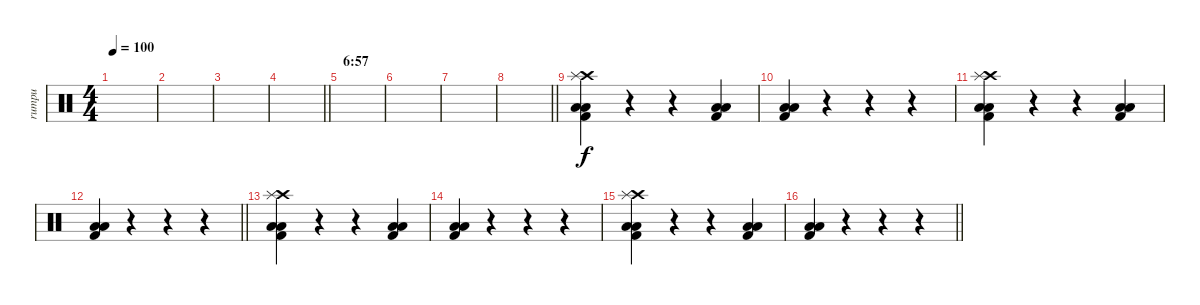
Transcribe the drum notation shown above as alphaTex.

\track ("rumpu" "rumpu") {instrument percussion}
\staff {score}
\articulation defaults
\ts (4 4)
\tempo 100
\clef neutral
\ks c
|
|
|
\barLineRight lightlight
|
\section ("" "6:57")
|
|
|
\barLineRight lightlight
|
("Kick (hit) 2" "Low Tom (hit)" "Low Floor Tom (hit)" "Crash high (hit)" "Splash (hit)").4 r.4 r.4 ("Kick (hit) 2" "Low Tom (hit)" "Low Floor Tom (hit)").4 |
("Kick (hit) 2" "Low Tom (hit)" "Low Floor Tom (hit)").4 r.4 r.4 r.4 |
("Kick (hit) 2" "Low Tom (hit)" "Low Floor Tom (hit)" "Crash high (hit)" "Splash (hit)").4 r.4 r.4 ("Kick (hit) 2" "Low Tom (hit)" "Low Floor Tom (hit)").4 |
\barLineRight lightlight
("Kick (hit) 2" "Low Tom (hit)" "Low Floor Tom (hit)").4 r.4 r.4 r.4 |
("Kick (hit) 2" "Low Tom (hit)" "Low Floor Tom (hit)" "Crash high (hit)" "Splash (hit)").4 r.4 r.4 ("Kick (hit) 2" "Low Tom (hit)" "Low Floor Tom (hit)").4 |
("Kick (hit) 2" "Low Tom (hit)" "Low Floor Tom (hit)").4 r.4 r.4 r.4 |
("Kick (hit) 2" "Low Tom (hit)" "Low Floor Tom (hit)" "Crash high (hit)" "Splash (hit)").4 r.4 r.4 ("Kick (hit) 2" "Low Tom (hit)" "Low Floor Tom (hit)").4 |
\barLineRight lightlight
("Kick (hit) 2" "Low Tom (hit)" "Low Floor Tom (hit)").4 r.4 r.4 r.4
